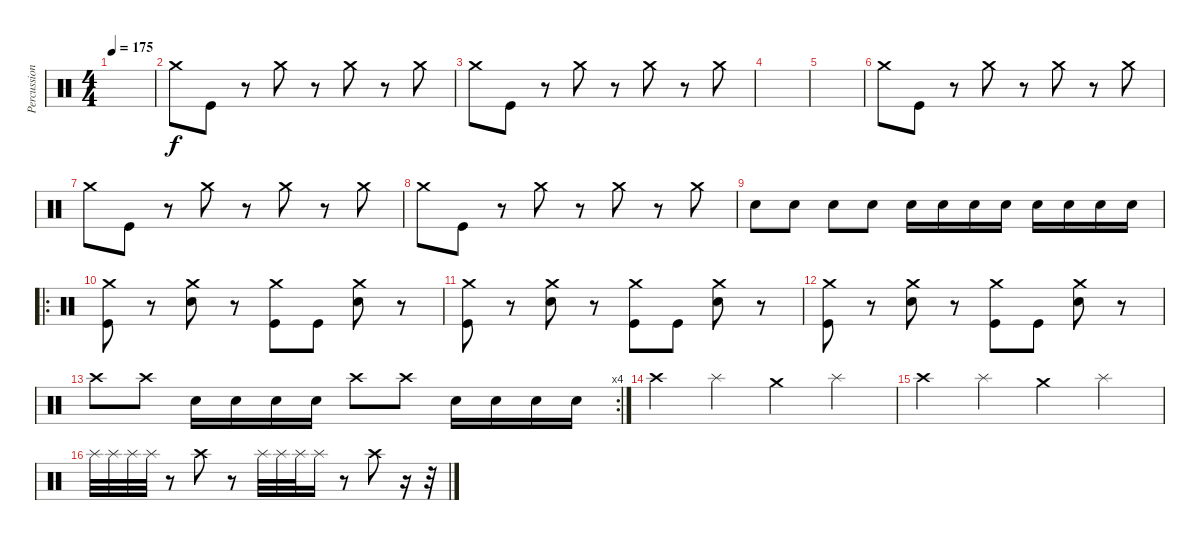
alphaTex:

\track ("Percussion" "Percussion") {instrument percussion}
\staff {score}
\articulation defaults
\ts (4 4)
\tempo 175
\clef neutral
\ks c
|
"Crash medium (hit)".8 "Kick (hit)".8 r.8 "Crash medium (hit)".8 r.8 "Crash medium (hit)".8 r.8 "Crash medium (hit)".8 |
"Crash medium (hit)".8 "Kick (hit)".8 r.8 "Crash medium (hit)".8 r.8 "Crash medium (hit)".8 r.8 "Crash medium (hit)".8 |
|
|
"Crash medium (hit)".8 "Kick (hit)".8 r.8 "Crash medium (hit)".8 r.8 "Crash medium (hit)".8 r.8 "Crash medium (hit)".8 |
"Crash medium (hit)".8 "Kick (hit)".8 r.8 "Crash medium (hit)".8 r.8 "Crash medium (hit)".8 r.8 "Crash medium (hit)".8 |
"Crash medium (hit)".8 "Kick (hit)".8 r.8 "Crash medium (hit)".8 r.8 "Crash medium (hit)".8 r.8 "Crash medium (hit)".8 |
"Electric Snare (hit)".8 "Electric Snare (hit)".8 "Electric Snare (hit)".8 "Electric Snare (hit)".8 "Electric Snare (hit)".16 "Electric Snare (hit)".16 "Electric Snare (hit)".16 "Electric Snare (hit)".16 "Electric Snare (hit)".16 "Electric Snare (hit)".16 "Electric Snare (hit)".16 "Electric Snare (hit)".16 |
\ro
("Crash medium (hit)" "Kick (hit)").8 r.8 ("Crash medium (hit)" "Electric Snare (hit)").8 r.8 ("Crash medium (hit)" "Kick (hit)").8 "Kick (hit)".8 ("Crash medium (hit)" "Electric Snare (hit)").8 r.8 |
("Crash medium (hit)" "Kick (hit)").8 r.8 ("Crash medium (hit)" "Electric Snare (hit)").8 r.8 ("Crash medium (hit)" "Kick (hit)").8 "Kick (hit)".8 ("Crash medium (hit)" "Electric Snare (hit)").8 r.8 |
("Crash medium (hit)" "Kick (hit)").8 r.8 ("Crash medium (hit)" "Electric Snare (hit)").8 r.8 ("Crash medium (hit)" "Kick (hit)").8 "Kick (hit)".8 ("Crash medium (hit)" "Electric Snare (hit)").8 r.8 |
\rc 4 "Crash high (hit)".8 "Crash high (hit)".8 "Electric Snare (hit)".16 "Electric Snare (hit)".16 "Electric Snare (hit)".16 "Electric Snare (hit)".16 "Crash high (hit)".8 "Crash high (hit)".8 "Electric Snare (hit)".16 "Electric Snare (hit)".16 "Electric Snare (hit)".16 "Electric Snare (hit)".16
|
"Crash high (hit)".4 "Splash (hit)".4 "Crash medium (hit)".4 "Splash (hit)".4 |
"Crash high (hit)".4 "Splash (hit)".4 "Crash medium (hit)".4 "Splash (hit)".4 |
"Splash (hit)".32 "Splash (hit)".32 "Splash (hit)".32 "Splash (hit)".32 r.8 "Crash high (hit)".8 r.8 "Splash (hit)".32 "Splash (hit)".32 "Splash (hit)".32 "Splash (hit)".16 r.8 "Crash high (hit)".8 r.16 r.32
